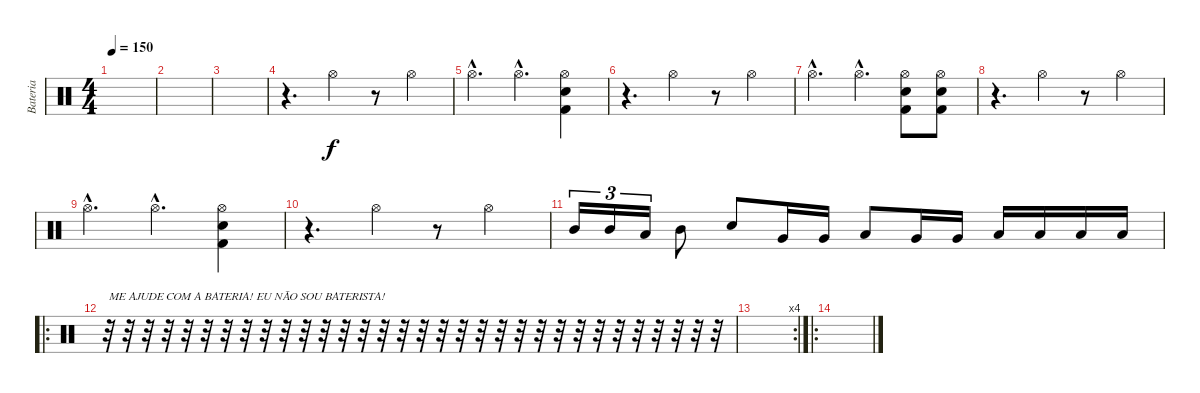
\track ("Bateria" "Bateria") {instrument percussion}
\staff {score}
\articulation defaults
\ts (4 4)
\tempo 150
\clef neutral
\ks c
|
|
|
r.4{d} "Hi-Hat (open)".4 r.8 "Hi-Hat (open)".4 |
"Hi-Hat (open)"{hac}.4{d} "Hi-Hat (open)"{hac}.4{d} ("Hi-Hat (open)" "Kick (hit) 2" "Snare (hit) 2").4 |
r.4{d} "Hi-Hat (open)".4 r.8 "Hi-Hat (open)".4 |
"Hi-Hat (open)"{hac}.4{d} "Hi-Hat (open)"{hac}.4{d} ("Hi-Hat (open)" "Kick (hit) 2" "Snare (hit) 2").8 ("Hi-Hat (open)" "Kick (hit) 2" "Snare (hit) 2").8 |
r.4{d} "Hi-Hat (open)".4 r.8 "Hi-Hat (open)".4 |
"Hi-Hat (open)"{hac}.4{d} "Hi-Hat (open)"{hac}.4{d} ("Hi-Hat (open)" "Kick (hit) 2" "Snare (hit) 2").4 |
r.4{d} "Hi-Hat (open)".4 r.8 "Hi-Hat (open)".4 |
"Mid Tom (hit)".16{tu (3 2)} "Mid Tom (hit)".16{tu (3 2)} "Low Tom (hit)".16{tu (3 2)} "Mid Tom (hit)".8 "Snare (hit) 2".8 "Very Low Tom (hit)".16 "Very Low Tom (hit)".16 "Low Tom (hit)".8 "Very Low Tom (hit)".16 "Very Low Tom (hit)".16 "Low Tom (hit)".16 "Low Tom (hit)".16 "Low Floor Tom (hit)".16 "Low Floor Tom (hit)".16 |
\ro
r.32{txt "ME AJUDE COM A BATERIA! EU NÃO SOU BATERISTA!"} r.32 r.32 r.32 r.32 r.32 r.32 r.32 r.32 r.32 r.32 r.32 r.32 r.32 r.32 r.32 r.32 r.32 r.32 r.32 r.32 r.32 r.32 r.32 r.32 r.32 r.32 r.32 r.32 r.32 r.32 r.32 |
\rc 4
|
\ro
